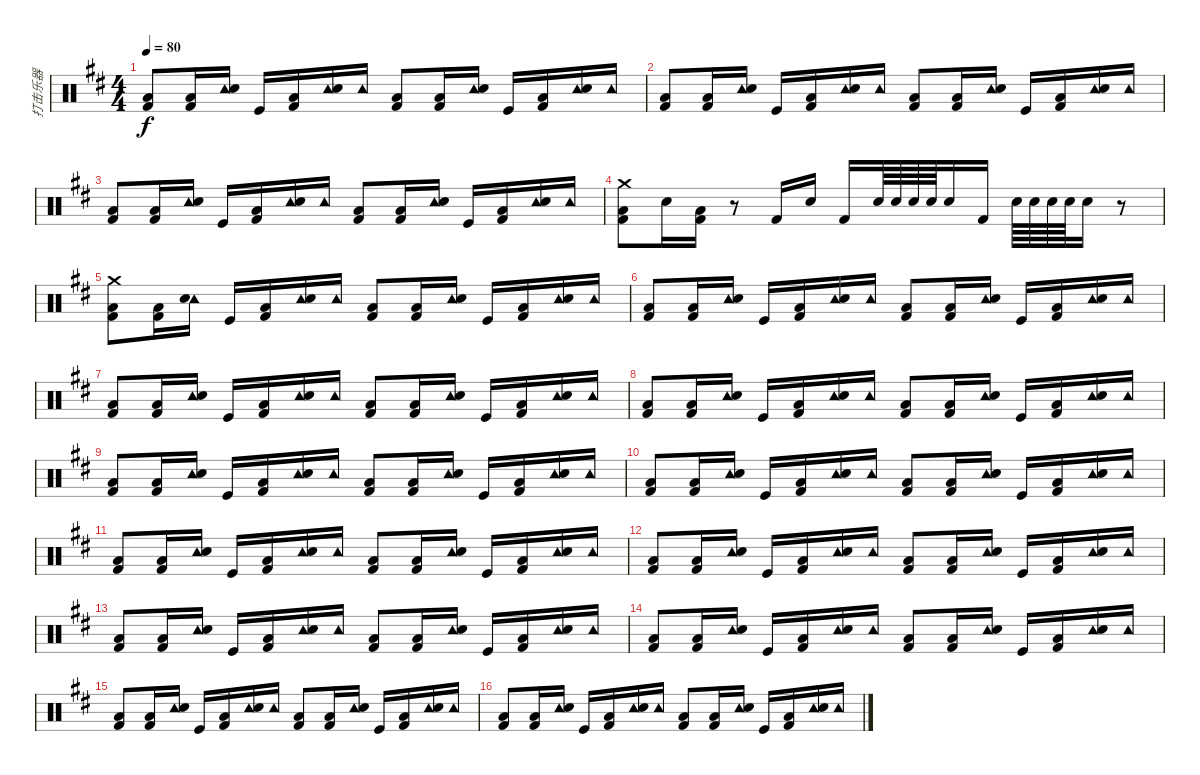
\track ("打击乐器" "打击乐器") {instrument percussion}
\staff {score}
\articulation defaults
\ts (4 4)
\tempo 80
\clef neutral
\ks bminor
("Kick (hit) 2" "Low Floor Tom (hit)").8{dy f} ("Kick (hit) 2" "Low Floor Tom (hit)").16 ("Tambourine (hit)" "Electric Snare (hit)").16 "Kick (hit)".16 ("Kick (hit) 2" "Low Floor Tom (hit)").16 ("Tambourine (hit)" "Electric Snare (hit)").16 "Tambourine (hit)".16 ("Kick (hit) 2" "Low Floor Tom (hit)").8 ("Kick (hit) 2" "Low Floor Tom (hit)").16 ("Tambourine (hit)" "Electric Snare (hit)").16 "Kick (hit)".16 ("Kick (hit) 2" "Low Floor Tom (hit)").16 ("Tambourine (hit)" "Electric Snare (hit)").16 "Tambourine (hit)".16 |
("Kick (hit) 2" "Low Floor Tom (hit)").8 ("Kick (hit) 2" "Low Floor Tom (hit)").16 ("Tambourine (hit)" "Electric Snare (hit)").16 "Kick (hit)".16 ("Kick (hit) 2" "Low Floor Tom (hit)").16 ("Tambourine (hit)" "Electric Snare (hit)").16 "Tambourine (hit)".16 ("Kick (hit) 2" "Low Floor Tom (hit)").8 ("Kick (hit) 2" "Low Floor Tom (hit)").16 ("Tambourine (hit)" "Electric Snare (hit)").16 "Kick (hit)".16 ("Kick (hit) 2" "Low Floor Tom (hit)").16 ("Tambourine (hit)" "Electric Snare (hit)").16 "Tambourine (hit)".16 |
("Kick (hit) 2" "Low Floor Tom (hit)").8 ("Kick (hit) 2" "Low Floor Tom (hit)").16 ("Tambourine (hit)" "Electric Snare (hit)").16 "Kick (hit)".16 ("Kick (hit) 2" "Low Floor Tom (hit)").16 ("Tambourine (hit)" "Electric Snare (hit)").16 "Tambourine (hit)".16 ("Kick (hit) 2" "Low Floor Tom (hit)").8 ("Kick (hit) 2" "Low Floor Tom (hit)").16 ("Tambourine (hit)" "Electric Snare (hit)").16 "Kick (hit)".16 ("Kick (hit) 2" "Low Floor Tom (hit)").16 ("Tambourine (hit)" "Electric Snare (hit)").16 "Tambourine (hit)".16 |
("Crash medium (hit)" "Kick (hit) 2" "Low Floor Tom (hit)").8 "Electric Snare (hit)".16 ("Kick (hit) 2" "Low Floor Tom (hit)").16 r.8 "Kick (hit) 2".16 "Electric Snare (hit)".16 "Kick (hit) 2".16 "Electric Snare (hit)".64 "Electric Snare (hit)".64 "Electric Snare (hit)".64 "Electric Snare (hit)".64 "Electric Snare (hit)".16 "Kick (hit) 2".16 "Electric Snare (hit)".64 "Electric Snare (hit)".64 "Electric Snare (hit)".64 "Electric Snare (hit)".64 "Electric Snare (hit)".16 r.8 |
("Crash medium (hit)" "Kick (hit) 2" "Low Floor Tom (hit)").8 ("Kick (hit) 2" "Low Floor Tom (hit)").16 ("Tambourine (hit)" "Electric Snare (hit)").16 "Kick (hit)".16 ("Kick (hit) 2" "Low Floor Tom (hit)").16 ("Tambourine (hit)" "Electric Snare (hit)").16 "Tambourine (hit)".16 ("Kick (hit) 2" "Low Floor Tom (hit)").8 ("Kick (hit) 2" "Low Floor Tom (hit)").16 ("Tambourine (hit)" "Electric Snare (hit)").16 "Kick (hit)".16 ("Kick (hit) 2" "Low Floor Tom (hit)").16 ("Tambourine (hit)" "Electric Snare (hit)").16 "Tambourine (hit)".16 |
("Kick (hit) 2" "Low Floor Tom (hit)").8 ("Kick (hit) 2" "Low Floor Tom (hit)").16 ("Tambourine (hit)" "Electric Snare (hit)").16 "Kick (hit)".16 ("Kick (hit) 2" "Low Floor Tom (hit)").16 ("Tambourine (hit)" "Electric Snare (hit)").16 "Tambourine (hit)".16 ("Kick (hit) 2" "Low Floor Tom (hit)").8 ("Kick (hit) 2" "Low Floor Tom (hit)").16 ("Tambourine (hit)" "Electric Snare (hit)").16 "Kick (hit)".16 ("Kick (hit) 2" "Low Floor Tom (hit)").16 ("Tambourine (hit)" "Electric Snare (hit)").16 "Tambourine (hit)".16 |
("Kick (hit) 2" "Low Floor Tom (hit)").8 ("Kick (hit) 2" "Low Floor Tom (hit)").16 ("Tambourine (hit)" "Electric Snare (hit)").16 "Kick (hit)".16 ("Kick (hit) 2" "Low Floor Tom (hit)").16 ("Tambourine (hit)" "Electric Snare (hit)").16 "Tambourine (hit)".16 ("Kick (hit) 2" "Low Floor Tom (hit)").8 ("Kick (hit) 2" "Low Floor Tom (hit)").16 ("Tambourine (hit)" "Electric Snare (hit)").16 "Kick (hit)".16 ("Kick (hit) 2" "Low Floor Tom (hit)").16 ("Tambourine (hit)" "Electric Snare (hit)").16 "Tambourine (hit)".16 |
("Kick (hit) 2" "Low Floor Tom (hit)").8 ("Kick (hit) 2" "Low Floor Tom (hit)").16 ("Tambourine (hit)" "Electric Snare (hit)").16 "Kick (hit)".16 ("Kick (hit) 2" "Low Floor Tom (hit)").16 ("Tambourine (hit)" "Electric Snare (hit)").16 "Tambourine (hit)".16 ("Kick (hit) 2" "Low Floor Tom (hit)").8 ("Kick (hit) 2" "Low Floor Tom (hit)").16 ("Tambourine (hit)" "Electric Snare (hit)").16 "Kick (hit)".16 ("Kick (hit) 2" "Low Floor Tom (hit)").16 ("Tambourine (hit)" "Electric Snare (hit)").16 "Tambourine (hit)".16 |
("Kick (hit) 2" "Low Floor Tom (hit)").8 ("Kick (hit) 2" "Low Floor Tom (hit)").16 ("Tambourine (hit)" "Electric Snare (hit)").16 "Kick (hit)".16 ("Kick (hit) 2" "Low Floor Tom (hit)").16 ("Tambourine (hit)" "Electric Snare (hit)").16 "Tambourine (hit)".16 ("Kick (hit) 2" "Low Floor Tom (hit)").8 ("Kick (hit) 2" "Low Floor Tom (hit)").16 ("Tambourine (hit)" "Electric Snare (hit)").16 "Kick (hit)".16 ("Kick (hit) 2" "Low Floor Tom (hit)").16 ("Tambourine (hit)" "Electric Snare (hit)").16 "Tambourine (hit)".16 |
("Kick (hit) 2" "Low Floor Tom (hit)").8 ("Kick (hit) 2" "Low Floor Tom (hit)").16 ("Tambourine (hit)" "Electric Snare (hit)").16 "Kick (hit)".16 ("Kick (hit) 2" "Low Floor Tom (hit)").16 ("Tambourine (hit)" "Electric Snare (hit)").16 "Tambourine (hit)".16 ("Kick (hit) 2" "Low Floor Tom (hit)").8 ("Kick (hit) 2" "Low Floor Tom (hit)").16 ("Tambourine (hit)" "Electric Snare (hit)").16 "Kick (hit)".16 ("Kick (hit) 2" "Low Floor Tom (hit)").16 ("Tambourine (hit)" "Electric Snare (hit)").16 "Tambourine (hit)".16 |
("Kick (hit) 2" "Low Floor Tom (hit)").8 ("Kick (hit) 2" "Low Floor Tom (hit)").16 ("Tambourine (hit)" "Electric Snare (hit)").16 "Kick (hit)".16 ("Kick (hit) 2" "Low Floor Tom (hit)").16 ("Tambourine (hit)" "Electric Snare (hit)").16 "Tambourine (hit)".16 ("Kick (hit) 2" "Low Floor Tom (hit)").8 ("Kick (hit) 2" "Low Floor Tom (hit)").16 ("Tambourine (hit)" "Electric Snare (hit)").16 "Kick (hit)".16 ("Kick (hit) 2" "Low Floor Tom (hit)").16 ("Tambourine (hit)" "Electric Snare (hit)").16 "Tambourine (hit)".16 |
("Kick (hit) 2" "Low Floor Tom (hit)").8 ("Kick (hit) 2" "Low Floor Tom (hit)").16 ("Tambourine (hit)" "Electric Snare (hit)").16 "Kick (hit)".16 ("Kick (hit) 2" "Low Floor Tom (hit)").16 ("Tambourine (hit)" "Electric Snare (hit)").16 "Tambourine (hit)".16 ("Kick (hit) 2" "Low Floor Tom (hit)").8 ("Kick (hit) 2" "Low Floor Tom (hit)").16 ("Tambourine (hit)" "Electric Snare (hit)").16 "Kick (hit)".16 ("Kick (hit) 2" "Low Floor Tom (hit)").16 ("Tambourine (hit)" "Electric Snare (hit)").16 "Tambourine (hit)".16 |
("Kick (hit) 2" "Low Floor Tom (hit)").8 ("Kick (hit) 2" "Low Floor Tom (hit)").16 ("Tambourine (hit)" "Electric Snare (hit)").16 "Kick (hit)".16 ("Kick (hit) 2" "Low Floor Tom (hit)").16 ("Tambourine (hit)" "Electric Snare (hit)").16 "Tambourine (hit)".16 ("Kick (hit) 2" "Low Floor Tom (hit)").8 ("Kick (hit) 2" "Low Floor Tom (hit)").16 ("Tambourine (hit)" "Electric Snare (hit)").16 "Kick (hit)".16 ("Kick (hit) 2" "Low Floor Tom (hit)").16 ("Tambourine (hit)" "Electric Snare (hit)").16 "Tambourine (hit)".16 |
("Kick (hit) 2" "Low Floor Tom (hit)").8 ("Kick (hit) 2" "Low Floor Tom (hit)").16 ("Tambourine (hit)" "Electric Snare (hit)").16 "Kick (hit)".16 ("Kick (hit) 2" "Low Floor Tom (hit)").16 ("Tambourine (hit)" "Electric Snare (hit)").16 "Tambourine (hit)".16 ("Kick (hit) 2" "Low Floor Tom (hit)").8 ("Kick (hit) 2" "Low Floor Tom (hit)").16 ("Tambourine (hit)" "Electric Snare (hit)").16 "Kick (hit)".16 ("Kick (hit) 2" "Low Floor Tom (hit)").16 ("Tambourine (hit)" "Electric Snare (hit)").16 "Tambourine (hit)".16 |
("Kick (hit) 2" "Low Floor Tom (hit)").8 ("Kick (hit) 2" "Low Floor Tom (hit)").16 ("Tambourine (hit)" "Electric Snare (hit)").16 "Kick (hit)".16 ("Kick (hit) 2" "Low Floor Tom (hit)").16 ("Tambourine (hit)" "Electric Snare (hit)").16 "Tambourine (hit)".16 ("Kick (hit) 2" "Low Floor Tom (hit)").8 ("Kick (hit) 2" "Low Floor Tom (hit)").16 ("Tambourine (hit)" "Electric Snare (hit)").16 "Kick (hit)".16 ("Kick (hit) 2" "Low Floor Tom (hit)").16 ("Tambourine (hit)" "Electric Snare (hit)").16 "Tambourine (hit)".16 |
("Kick (hit) 2" "Low Floor Tom (hit)").8 ("Kick (hit) 2" "Low Floor Tom (hit)").16 ("Tambourine (hit)" "Electric Snare (hit)").16 "Kick (hit)".16 ("Kick (hit) 2" "Low Floor Tom (hit)").16 ("Tambourine (hit)" "Electric Snare (hit)").16 "Tambourine (hit)".16 ("Kick (hit) 2" "Low Floor Tom (hit)").8 ("Kick (hit) 2" "Low Floor Tom (hit)").16 ("Tambourine (hit)" "Electric Snare (hit)").16 "Kick (hit)".16 ("Kick (hit) 2" "Low Floor Tom (hit)").16 ("Tambourine (hit)" "Electric Snare (hit)").16 "Tambourine (hit)".16
